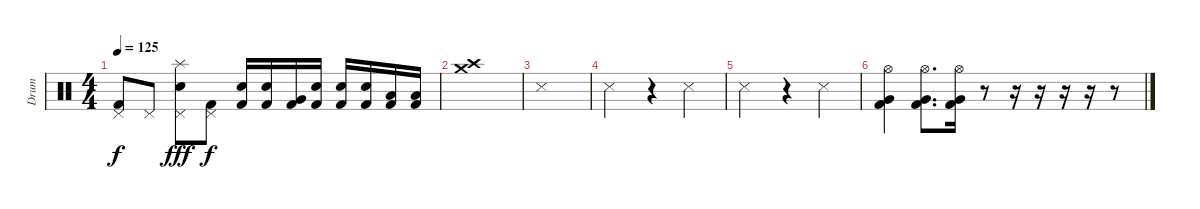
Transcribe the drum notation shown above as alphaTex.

\track ("Drum" "Drum") {instrument percussion}
\staff {score}
\articulation defaults
\ts (4 4)
\tempo 125
\clef neutral
\ks c
("Pedal Hi-Hat (hit)" "Kick (hit) 2").8{dy f} "Pedal Hi-Hat (hit)".8 ("Electric Snare (hit)" "Splash (hit)" "Pedal Hi-Hat (hit)").8{dy fff} ("Pedal Hi-Hat (hit)" "Kick (hit) 2").8{dy f} ("Electric Snare (hit)" "Kick (hit) 2").16 ("Electric Snare (hit)" "Kick (hit) 2").16 ("Very Low Tom (hit)" "Kick (hit) 2").16 ("Electric Snare (hit)" "Kick (hit) 2").16 ("Electric Snare (hit)" "Kick (hit) 2").16 ("Electric Snare (hit)" "Kick (hit) 2").16 ("Low Floor Tom (hit)" "Kick (hit) 2").16 ("Low Floor Tom (hit)" "Kick (hit) 2").16 |
("Crash high (hit)" "Crash medium (hit)").1 |
"Snare (side stick) 3".1 |
"Snare (side stick) 3".2 r.4 "Snare (side stick) 3".4 |
"Snare (side stick) 3".2 r.4 "Metronome (hit)".4 |
("Very Low Tom (hit)" "Hi-Hat (open)" "Kick (hit) 2").4 ("Very Low Tom (hit)" "Hi-Hat (open)" "Kick (hit) 2").8{d} ("Very Low Tom (hit)" "Hi-Hat (open)" "Kick (hit) 2").16 r.8 r.16 r.16 r.16 r.16 r.8
